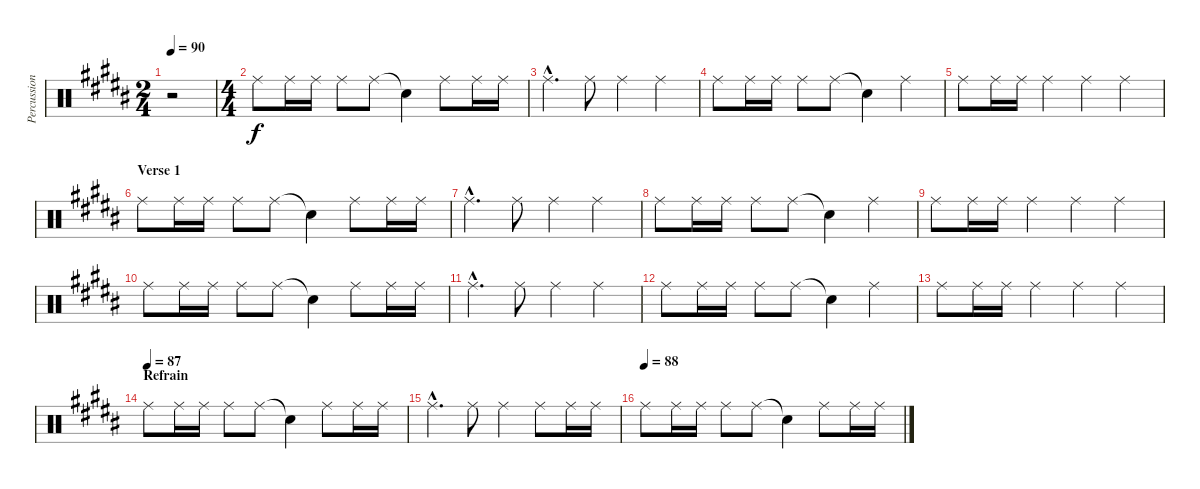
\track ("Percussion" "Percussion") {instrument percussion}
\staff {score}
\articulation defaults
\ts (2 4)
\tempo 90
\tempo 86
\tempo 90
\clef neutral
\ks b
r.2{dy f} |
\ts (4 4)
"Ride (middle)".8{volume 8} "Ride (middle)".16 "Ride (middle)".16 "Ride (middle)".8 "Ride (middle)".8 "Snare (hit)"{t}.4 "Ride (middle)".8 "Ride (middle)".16 "Ride (middle)".16 |
"Ride (middle)"{hac}.4{d} "Ride (middle)".8 "Ride (middle)".4 "Ride (middle)".4 |
"Ride (middle)".8 "Ride (middle)".16 "Ride (middle)".16 "Ride (middle)".8 "Ride (middle)".8 "Snare (hit)"{t}.4 "Ride (middle)".4 |
"Ride (middle)".8 "Ride (middle)".16 "Ride (middle)".16 "Ride (middle)".4 "Ride (middle)".4 "Ride (middle)".4 |
\section ("" "Verse 1")
"Ride (middle)".8{volume 8} "Ride (middle)".16 "Ride (middle)".16 "Ride (middle)".8 "Ride (middle)".8 "Snare (hit)"{t}.4 "Ride (middle)".8 "Ride (middle)".16 "Ride (middle)".16 |
"Ride (middle)"{hac}.4{d} "Ride (middle)".8 "Ride (middle)".4 "Ride (middle)".4 |
"Ride (middle)".8 "Ride (middle)".16 "Ride (middle)".16 "Ride (middle)".8 "Ride (middle)".8 "Snare (hit)"{t}.4 "Ride (middle)".4 |
"Ride (middle)".8 "Ride (middle)".16 "Ride (middle)".16 "Ride (middle)".4 "Ride (middle)".4 "Ride (middle)".4 |
"Ride (middle)".8{volume 8} "Ride (middle)".16 "Ride (middle)".16 "Ride (middle)".8 "Ride (middle)".8 "Snare (hit)"{t}.4 "Ride (middle)".8 "Ride (middle)".16 "Ride (middle)".16 |
"Ride (middle)"{hac}.4{d} "Ride (middle)".8 "Ride (middle)".4 "Ride (middle)".4 |
"Ride (middle)".8 "Ride (middle)".16 "Ride (middle)".16 "Ride (middle)".8 "Ride (middle)".8 "Snare (hit)"{t}.4 "Ride (middle)".4 |
"Ride (middle)".8 "Ride (middle)".16 "Ride (middle)".16 "Ride (middle)".4 "Ride (middle)".4 "Ride (middle)".4 |
\section ("" "Refrain")
\tempo (87)
"Ride (middle)".8{volume 8} "Ride (middle)".16 "Ride (middle)".16 "Ride (middle)".8 "Ride (middle)".8 "Snare (hit)"{t}.4 "Ride (middle)".8 "Ride (middle)".16 "Ride (middle)".16 |
"Ride (middle)"{hac}.4{d} "Ride (middle)".8 "Ride (middle)".4 "Ride (middle)".8 "Ride (middle)".16 "Ride (middle)".16 |
\tempo (88)
"Ride (middle)".8 "Ride (middle)".16 "Ride (middle)".16 "Ride (middle)".8 "Ride (middle)".8 "Snare (hit)"{t}.4 "Ride (middle)".8 "Ride (middle)".16 "Ride (middle)".16
